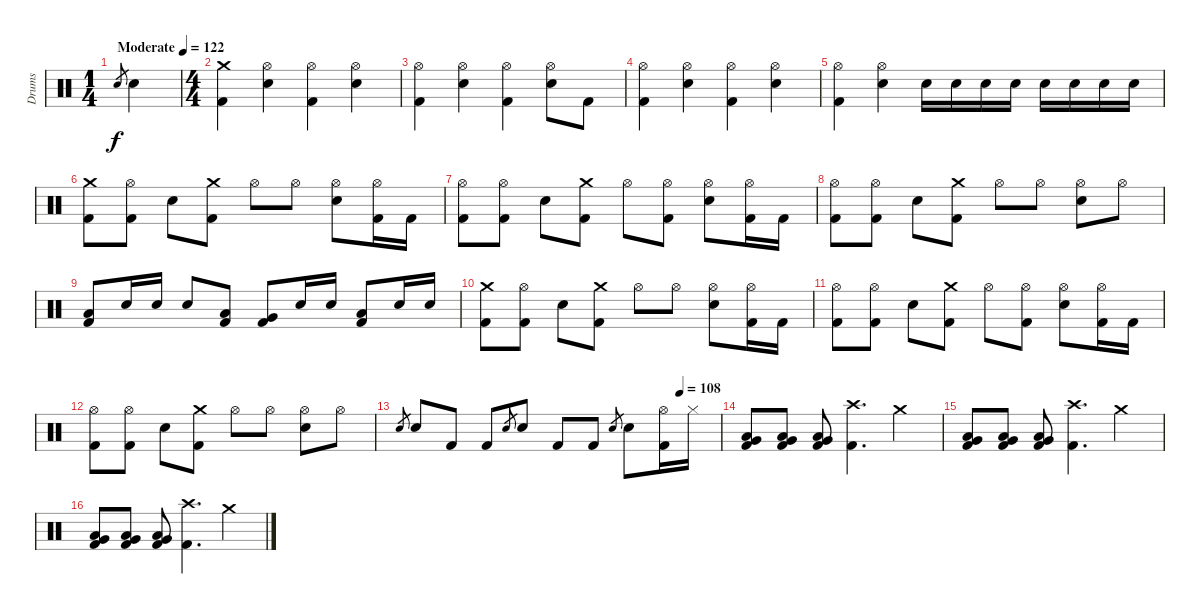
\track ("Drums" "Drums") {instrument percussion}
\staff {score}
\articulation defaults
\ts (1 4)
\tempo (122 "Moderate")
\clef neutral
\ks c "Electric Snare (hit)".8{gr dy f} "Electric Snare (hit)".4
|
\ts (4 4)
("Crash medium (hit)" "Kick (hit) 2").4 ("Hi-Hat (open)" "Electric Snare (hit)").4 ("Hi-Hat (open)" "Kick (hit) 2").4 ("Hi-Hat (open)" "Electric Snare (hit)").4 |
("Hi-Hat (open)" "Kick (hit) 2").4 ("Hi-Hat (open)" "Electric Snare (hit)").4 ("Hi-Hat (open)" "Kick (hit) 2").4 ("Hi-Hat (open)" "Electric Snare (hit)").8 "Kick (hit) 2".8 |
("Hi-Hat (open)" "Kick (hit) 2").4 ("Hi-Hat (open)" "Electric Snare (hit)").4 ("Hi-Hat (open)" "Kick (hit) 2").4 ("Hi-Hat (open)" "Electric Snare (hit)").4 |
("Hi-Hat (open)" "Kick (hit) 2").4 ("Hi-Hat (open)" "Electric Snare (hit)").4 "Electric Snare (hit)".16 "Electric Snare (hit)".16 "Electric Snare (hit)".16 "Electric Snare (hit)".16 "Electric Snare (hit)".16 "Electric Snare (hit)".16 "Electric Snare (hit)".16 "Electric Snare (hit)".16 |
("Crash medium (hit)" "Kick (hit) 2").8 ("Hi-Hat (open)" "Kick (hit) 2").8 "Electric Snare (hit)".8 ("Crash medium (hit)" "Kick (hit) 2").8 "Hi-Hat (open)".8 "Hi-Hat (open)".8 ("Hi-Hat (open)" "Electric Snare (hit)").8 ("Hi-Hat (open)" "Kick (hit) 2").16 "Kick (hit) 2".16 |
("Hi-Hat (open)" "Kick (hit) 2").8 ("Hi-Hat (open)" "Kick (hit) 2").8 "Electric Snare (hit)".8 ("Crash medium (hit)" "Kick (hit) 2").8 "Hi-Hat (open)".8 ("Hi-Hat (open)" "Kick (hit) 2").8 ("Hi-Hat (open)" "Electric Snare (hit)").8 ("Hi-Hat (open)" "Kick (hit) 2").16 "Kick (hit) 2".16 |
("Hi-Hat (open)" "Kick (hit) 2").8 ("Hi-Hat (open)" "Kick (hit) 2").8 "Electric Snare (hit)".8 ("Crash medium (hit)" "Kick (hit) 2").8 "Hi-Hat (open)".8 "Hi-Hat (open)".8 ("Hi-Hat (open)" "Electric Snare (hit)").8 "Hi-Hat (open)".8 |
("Low Tom (hit)" "Kick (hit) 2").8 "Electric Snare (hit)".16 "Electric Snare (hit)".16 "Electric Snare (hit)".8 ("Low Tom (hit)" "Kick (hit) 2").8 ("Very Low Tom (hit)" "Kick (hit) 2").8 "Electric Snare (hit)".16 "Electric Snare (hit)".16 ("Low Tom (hit)" "Kick (hit) 2").8 "Electric Snare (hit)".16 "Electric Snare (hit)".16 |
("Crash medium (hit)" "Kick (hit) 2").8 ("Hi-Hat (open)" "Kick (hit) 2").8 "Electric Snare (hit)".8 ("Crash medium (hit)" "Kick (hit) 2").8 "Hi-Hat (open)".8 "Hi-Hat (open)".8 ("Hi-Hat (open)" "Electric Snare (hit)").8 ("Hi-Hat (open)" "Kick (hit) 2").16 "Kick (hit) 2".16 |
("Hi-Hat (open)" "Kick (hit) 2").8 ("Hi-Hat (open)" "Kick (hit) 2").8 "Electric Snare (hit)".8 ("Crash medium (hit)" "Kick (hit) 2").8 "Hi-Hat (open)".8 ("Hi-Hat (open)" "Kick (hit) 2").8 ("Hi-Hat (open)" "Electric Snare (hit)").8 ("Hi-Hat (open)" "Kick (hit) 2").16 "Kick (hit) 2".16 |
("Hi-Hat (open)" "Kick (hit) 2").8 ("Hi-Hat (open)" "Kick (hit) 2").8 "Electric Snare (hit)".8 ("Crash medium (hit)" "Kick (hit) 2").8 "Hi-Hat (open)".8 "Hi-Hat (open)".8 ("Hi-Hat (open)" "Electric Snare (hit)").8 "Hi-Hat (open)".8 |
\tempo (108 0.875)
"Electric Snare (hit)".8{gr} "Electric Snare (hit)".8 "Kick (hit) 2".8 "Kick (hit) 2".8 "Electric Snare (hit)".8{gr} "Electric Snare (hit)".8 "Kick (hit) 2".8 "Kick (hit) 2".8 "Electric Snare (hit)".8{gr} "Electric Snare (hit)".8 ("Hi-Hat (open)" "Kick (hit) 2").16 "Hi-Hat (closed)".16 |
("Low Floor Tom (hit)" "Very Low Tom (hit)" "Kick (hit) 2").8 ("Low Floor Tom (hit)" "Very Low Tom (hit)" "Kick (hit) 2").8 ("Low Floor Tom (hit)" "Very Low Tom (hit)" "Kick (hit) 2").8 ("Crash high (hit)" "Kick (hit) 2").4{d} "Crash medium (hit)".4 |
("Very Low Tom (hit)" "Low Tom (hit)" "Kick (hit) 2").8 ("Very Low Tom (hit)" "Low Tom (hit)" "Kick (hit) 2").8 ("Very Low Tom (hit)" "Low Tom (hit)" "Kick (hit) 2").8 ("Crash high (hit)" "Kick (hit) 2").4{d} "Crash medium (hit)".4 |
("Low Floor Tom (hit)" "Very Low Tom (hit)" "Kick (hit) 2").8 ("Low Floor Tom (hit)" "Very Low Tom (hit)" "Kick (hit) 2").8 ("Low Floor Tom (hit)" "Very Low Tom (hit)" "Kick (hit) 2").8 ("Crash high (hit)" "Kick (hit) 2").4{d} "Crash medium (hit)".4
